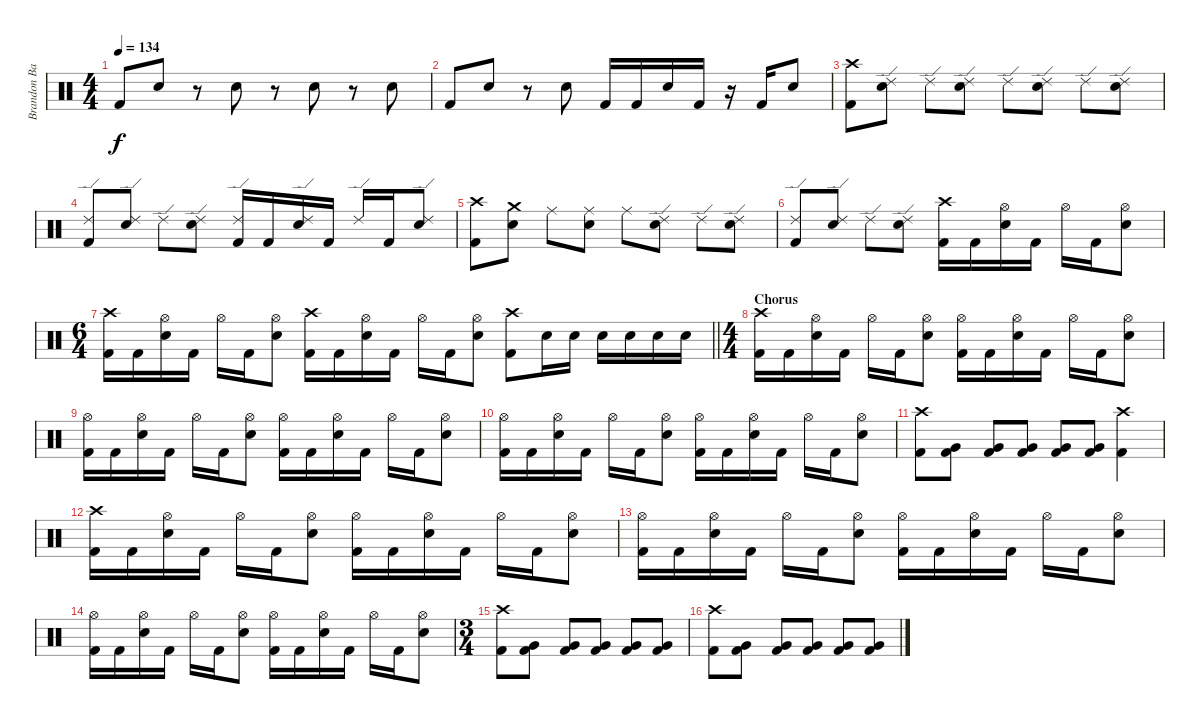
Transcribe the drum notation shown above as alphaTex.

\track ("Brandon Barnes - Drums" "Brandon Ba") {instrument percussion}
\staff {score}
\articulation defaults
\ts (4 4)
\tempo 134
\clef neutral
\ks c "Kick (hit) 2".8{dy f} "Snare (hit) 2".8
r.8 "Snare (hit) 2".8 r.8 "Snare (hit) 2".8 r.8 "Snare (hit) 2".8 |
"Kick (hit) 2".8 "Snare (hit) 2".8 r.8 "Snare (hit) 2".8 "Kick (hit) 2".16 "Kick (hit) 2".16 "Snare (hit) 2".16 "Kick (hit) 2".16 r.16 "Kick (hit) 2".16 "Snare (hit) 2".8 |
("Kick (hit) 2" "Crash high (hit)").8 ("Snare (hit) 2" "Ride (edge) 2").8 "Ride (edge) 2".8 ("Snare (hit) 2" "Ride (edge) 2").8 "Ride (edge) 2".8 ("Snare (hit) 2" "Ride (edge) 2").8 "Ride (edge) 2".8 ("Snare (hit) 2" "Ride (edge) 2").8 |
("Kick (hit) 2" "Ride (edge) 2").8 ("Snare (hit) 2" "Ride (edge) 2").8 "Ride (edge) 2".8 ("Snare (hit) 2" "Ride (edge) 2").8 ("Kick (hit) 2" "Ride (edge) 2").16 "Kick (hit) 2".16 ("Snare (hit) 2" "Ride (edge) 2").16 "Kick (hit) 2".16 "Ride (edge) 2".16 "Kick (hit) 2".16 ("Snare (hit) 2" "Ride (edge) 2").8 |
("Kick (hit) 2" "Crash high (hit)").8 ("Snare (hit) 2" "Crash medium (hit)").8 "Ride (middle)".8 ("Snare (hit) 2" "Ride (middle)").8 "Ride (middle)".8 ("Snare (hit) 2" "Ride (edge) 2").8 "Ride (edge) 2".8 ("Snare (hit) 2" "Ride (edge) 2").8 |
("Kick (hit) 2" "Ride (edge) 2").8 ("Snare (hit) 2" "Ride (edge) 2").8 "Ride (edge) 2".8 ("Snare (hit) 2" "Ride (edge) 2").8 ("Kick (hit) 2" "Crash high (hit)").16 "Kick (hit) 2".16 ("Snare (hit) 2" "Hi-Hat (open)").16 "Kick (hit) 2".16 "Hi-Hat (open)".16 "Kick (hit) 2".16 ("Snare (hit) 2" "Hi-Hat (open)").8 |
\ts (6 4)
\barLineRight lightlight
("Kick (hit) 2" "Crash high (hit)").16 "Kick (hit) 2".16 ("Snare (hit) 2" "Hi-Hat (open)").16 "Kick (hit) 2".16 "Hi-Hat (open)".16 "Kick (hit) 2".16 ("Snare (hit) 2" "Hi-Hat (open)").8 ("Kick (hit) 2" "Crash high (hit)").16 "Kick (hit) 2".16 ("Snare (hit) 2" "Hi-Hat (open)").16 "Kick (hit) 2".16 "Hi-Hat (open)".16 "Kick (hit) 2".16 ("Snare (hit) 2" "Hi-Hat (open)").8 ("Kick (hit) 2" "Crash high (hit)").8 "Snare (hit) 2".16 "Snare (hit) 2".16 "Snare (hit) 2".16 "Snare (hit) 2".16 "Snare (hit) 2".16 "Snare (hit) 2".16 |
\ts (4 4)
\section ("" "Chorus")
("Crash high (hit)" "Kick (hit) 2").16 "Kick (hit) 2".16 ("Snare (hit) 2" "Hi-Hat (open)").16 "Kick (hit) 2".16 "Hi-Hat (open)".16 "Kick (hit) 2".16 ("Snare (hit) 2" "Hi-Hat (open)").8 ("Hi-Hat (open)" "Kick (hit) 2").16 "Kick (hit) 2".16 ("Snare (hit) 2" "Hi-Hat (open)").16 "Kick (hit) 2".16 "Hi-Hat (open)".16 "Kick (hit) 2".16 ("Snare (hit) 2" "Hi-Hat (open)").8 |
("Hi-Hat (open)" "Kick (hit) 2").16 "Kick (hit) 2".16 ("Snare (hit) 2" "Hi-Hat (open)").16 "Kick (hit) 2".16 "Hi-Hat (open)".16 "Kick (hit) 2".16 ("Snare (hit) 2" "Hi-Hat (open)").8 ("Hi-Hat (open)" "Kick (hit) 2").16 "Kick (hit) 2".16 ("Snare (hit) 2" "Hi-Hat (open)").16 "Kick (hit) 2".16 "Hi-Hat (open)".16 "Kick (hit) 2".16 ("Snare (hit) 2" "Hi-Hat (open)").8 |
("Hi-Hat (open)" "Kick (hit) 2").16 "Kick (hit) 2".16 ("Snare (hit) 2" "Hi-Hat (open)").16 "Kick (hit) 2".16 "Hi-Hat (open)".16 "Kick (hit) 2".16 ("Snare (hit) 2" "Hi-Hat (open)").8 ("Hi-Hat (open)" "Kick (hit) 2").16 "Kick (hit) 2".16 ("Snare (hit) 2" "Hi-Hat (open)").16 "Kick (hit) 2".16 "Hi-Hat (open)".16 "Kick (hit) 2".16 ("Snare (hit) 2" "Hi-Hat (open)").8 |
("Kick (hit) 2" "Crash high (hit)").8 ("Very Low Tom (hit)" "Kick (hit) 2").8 ("Very Low Tom (hit)" "Kick (hit) 2").8 ("Very Low Tom (hit)" "Kick (hit) 2").8 ("Very Low Tom (hit)" "Kick (hit) 2").8 ("Very Low Tom (hit)" "Kick (hit) 2").8 ("Kick (hit) 2" "Crash high (hit)").4 |
("Crash high (hit)" "Kick (hit) 2").16 "Kick (hit) 2".16 ("Snare (hit) 2" "Hi-Hat (open)").16 "Kick (hit) 2".16 "Hi-Hat (open)".16 "Kick (hit) 2".16 ("Snare (hit) 2" "Hi-Hat (open)").8 ("Hi-Hat (open)" "Kick (hit) 2").16 "Kick (hit) 2".16 ("Snare (hit) 2" "Hi-Hat (open)").16 "Kick (hit) 2".16 "Hi-Hat (open)".16 "Kick (hit) 2".16 ("Snare (hit) 2" "Hi-Hat (open)").8 |
("Hi-Hat (open)" "Kick (hit) 2").16 "Kick (hit) 2".16 ("Snare (hit) 2" "Hi-Hat (open)").16 "Kick (hit) 2".16 "Hi-Hat (open)".16 "Kick (hit) 2".16 ("Snare (hit) 2" "Hi-Hat (open)").8 ("Hi-Hat (open)" "Kick (hit) 2").16 "Kick (hit) 2".16 ("Snare (hit) 2" "Hi-Hat (open)").16 "Kick (hit) 2".16 "Hi-Hat (open)".16 "Kick (hit) 2".16 ("Snare (hit) 2" "Hi-Hat (open)").8 |
("Hi-Hat (open)" "Kick (hit) 2").16 "Kick (hit) 2".16 ("Snare (hit) 2" "Hi-Hat (open)").16 "Kick (hit) 2".16 "Hi-Hat (open)".16 "Kick (hit) 2".16 ("Snare (hit) 2" "Hi-Hat (open)").8 ("Hi-Hat (open)" "Kick (hit) 2").16 "Kick (hit) 2".16 ("Snare (hit) 2" "Hi-Hat (open)").16 "Kick (hit) 2".16 "Hi-Hat (open)".16 "Kick (hit) 2".16 ("Snare (hit) 2" "Hi-Hat (open)").8 |
\ts (3 4)
("Kick (hit) 2" "Crash high (hit)").8 ("Very Low Tom (hit)" "Kick (hit) 2").8 ("Very Low Tom (hit)" "Kick (hit) 2").8 ("Very Low Tom (hit)" "Kick (hit) 2").8 ("Very Low Tom (hit)" "Kick (hit) 2").8 ("Very Low Tom (hit)" "Kick (hit) 2").8 |
("Kick (hit) 2" "Crash high (hit)").8 ("Very Low Tom (hit)" "Kick (hit) 2").8 ("Very Low Tom (hit)" "Kick (hit) 2").8 ("Very Low Tom (hit)" "Kick (hit) 2").8 ("Very Low Tom (hit)" "Kick (hit) 2").8 ("Very Low Tom (hit)" "Kick (hit) 2").8
